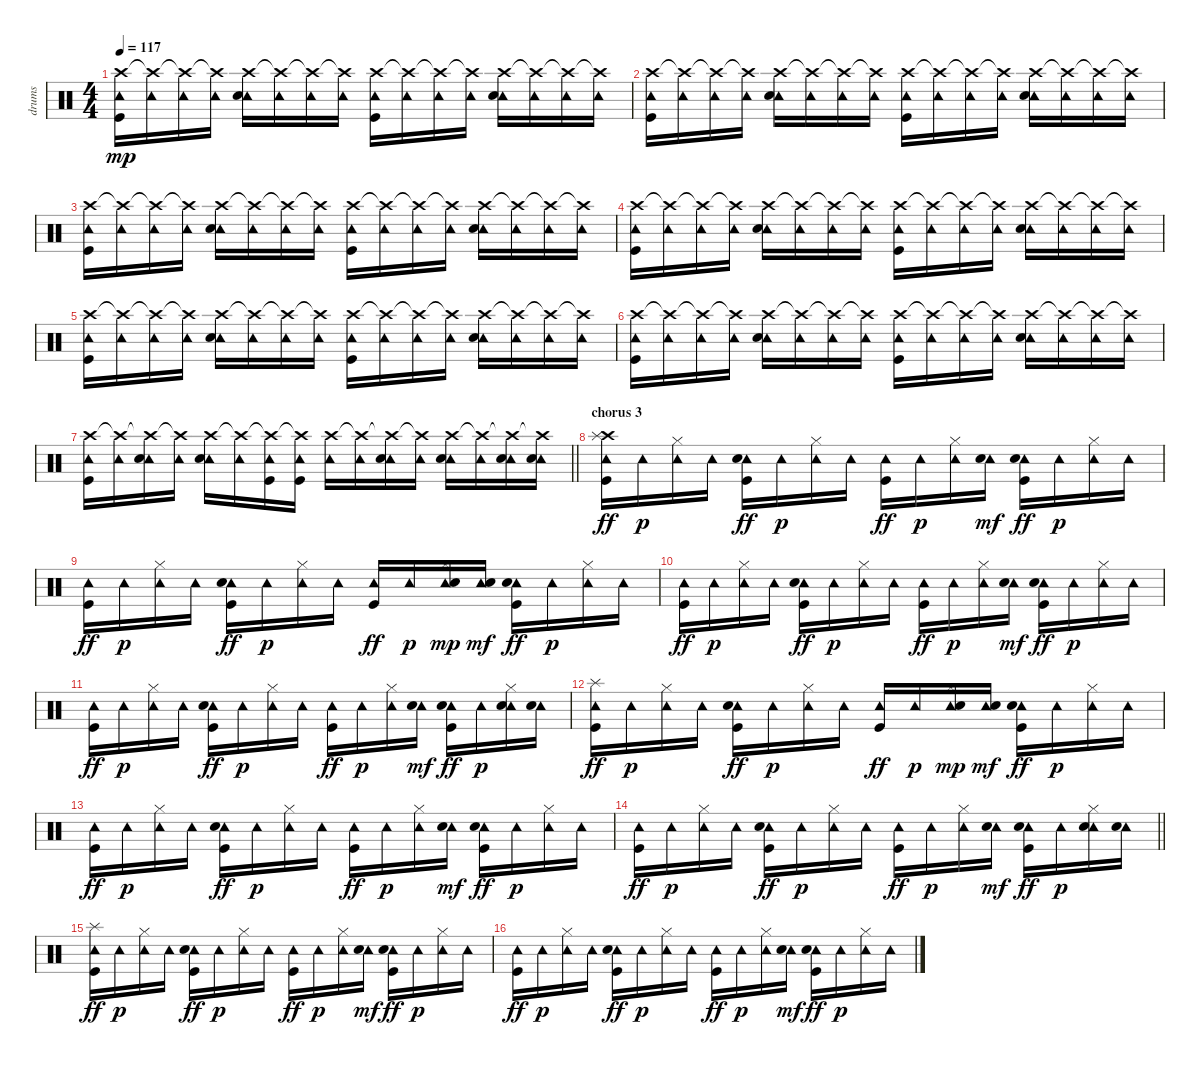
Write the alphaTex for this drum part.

\track ("drums" "drums") {instrument percussion}
\staff {score}
\articulation defaults
\ts (4 4)
\tempo 117
\clef neutral
\ks c
("Crash high (hit)" "Tambourine (hit)" "Kick (hit)").16{dy mp} ("Crash high (hit)"{t} "Tambourine (hit)").16 ("Crash high (hit)"{t} "Tambourine (hit)").16 ("Crash high (hit)"{t} "Tambourine (hit)").16 ("Crash high (hit)" "Tambourine (hit)" "Snare (hit) 2").16 ("Crash high (hit)"{t} "Tambourine (hit)").16 ("Crash high (hit)"{t} "Tambourine (hit)").16 ("Crash high (hit)"{t} "Tambourine (hit)").16 ("Crash high (hit)" "Tambourine (hit)" "Kick (hit)").16 ("Crash high (hit)"{t} "Tambourine (hit)").16 ("Crash high (hit)"{t} "Tambourine (hit)").16 ("Crash high (hit)"{t} "Tambourine (hit)").16 ("Crash high (hit)" "Tambourine (hit)" "Snare (hit) 2").16 ("Crash high (hit)"{t} "Tambourine (hit)").16 ("Crash high (hit)"{t} "Tambourine (hit)").16 ("Crash high (hit)"{t} "Tambourine (hit)").16 |
("Crash high (hit)" "Tambourine (hit)" "Kick (hit)").16 ("Crash high (hit)"{t} "Tambourine (hit)").16 ("Crash high (hit)"{t} "Tambourine (hit)").16 ("Crash high (hit)"{t} "Tambourine (hit)").16 ("Crash high (hit)" "Tambourine (hit)" "Snare (hit) 2").16 ("Crash high (hit)"{t} "Tambourine (hit)").16 ("Crash high (hit)"{t} "Tambourine (hit)").16 ("Crash high (hit)"{t} "Tambourine (hit)").16 ("Crash high (hit)" "Tambourine (hit)" "Kick (hit)").16 ("Crash high (hit)"{t} "Tambourine (hit)").16 ("Crash high (hit)"{t} "Tambourine (hit)").16 ("Crash high (hit)"{t} "Tambourine (hit)").16 ("Crash high (hit)" "Tambourine (hit)" "Snare (hit) 2").16 ("Crash high (hit)"{t} "Tambourine (hit)").16 ("Crash high (hit)"{t} "Tambourine (hit)").16 ("Crash high (hit)"{t} "Tambourine (hit)").16 |
("Crash high (hit)" "Tambourine (hit)" "Kick (hit)").16 ("Crash high (hit)"{t} "Tambourine (hit)").16 ("Crash high (hit)"{t} "Tambourine (hit)").16 ("Crash high (hit)"{t} "Tambourine (hit)").16 ("Crash high (hit)" "Tambourine (hit)" "Snare (hit) 2").16 ("Crash high (hit)"{t} "Tambourine (hit)").16 ("Crash high (hit)"{t} "Tambourine (hit)").16 ("Crash high (hit)"{t} "Tambourine (hit)").16 ("Crash high (hit)" "Tambourine (hit)" "Kick (hit)").16 ("Crash high (hit)"{t} "Tambourine (hit)").16 ("Crash high (hit)"{t} "Tambourine (hit)").16 ("Crash high (hit)"{t} "Tambourine (hit)").16 ("Crash high (hit)" "Tambourine (hit)" "Snare (hit) 2").16 ("Crash high (hit)"{t} "Tambourine (hit)").16 ("Crash high (hit)"{t} "Tambourine (hit)").16 ("Crash high (hit)"{t} "Tambourine (hit)").16 |
("Crash high (hit)" "Tambourine (hit)" "Kick (hit)").16 ("Crash high (hit)"{t} "Tambourine (hit)").16 ("Crash high (hit)"{t} "Tambourine (hit)").16 ("Crash high (hit)"{t} "Tambourine (hit)").16 ("Crash high (hit)" "Tambourine (hit)" "Snare (hit) 2").16 ("Crash high (hit)"{t} "Tambourine (hit)").16 ("Crash high (hit)"{t} "Tambourine (hit)").16 ("Crash high (hit)"{t} "Tambourine (hit)").16 ("Crash high (hit)" "Tambourine (hit)" "Kick (hit)").16 ("Crash high (hit)"{t} "Tambourine (hit)").16 ("Crash high (hit)"{t} "Tambourine (hit)").16 ("Crash high (hit)"{t} "Tambourine (hit)").16 ("Crash high (hit)" "Tambourine (hit)" "Snare (hit) 2").16 ("Crash high (hit)"{t} "Tambourine (hit)").16 ("Crash high (hit)"{t} "Tambourine (hit)").16 ("Crash high (hit)"{t} "Tambourine (hit)").16 |
("Crash high (hit)" "Tambourine (hit)" "Kick (hit)").16 ("Crash high (hit)"{t} "Tambourine (hit)").16 ("Crash high (hit)"{t} "Tambourine (hit)").16 ("Crash high (hit)"{t} "Tambourine (hit)").16 ("Crash high (hit)" "Tambourine (hit)" "Snare (hit) 2").16 ("Crash high (hit)"{t} "Tambourine (hit)").16 ("Crash high (hit)"{t} "Tambourine (hit)").16 ("Crash high (hit)"{t} "Tambourine (hit)").16 ("Crash high (hit)" "Tambourine (hit)" "Kick (hit)").16 ("Crash high (hit)"{t} "Tambourine (hit)").16 ("Crash high (hit)"{t} "Tambourine (hit)").16 ("Crash high (hit)"{t} "Tambourine (hit)").16 ("Crash high (hit)" "Tambourine (hit)" "Snare (hit) 2").16 ("Crash high (hit)"{t} "Tambourine (hit)").16 ("Crash high (hit)"{t} "Tambourine (hit)").16 ("Crash high (hit)"{t} "Tambourine (hit)").16 |
("Crash high (hit)" "Tambourine (hit)" "Kick (hit)").16 ("Crash high (hit)"{t} "Tambourine (hit)").16 ("Crash high (hit)"{t} "Tambourine (hit)").16 ("Crash high (hit)"{t} "Tambourine (hit)").16 ("Crash high (hit)" "Tambourine (hit)" "Snare (hit) 2").16 ("Crash high (hit)"{t} "Tambourine (hit)").16 ("Crash high (hit)"{t} "Tambourine (hit)").16 ("Crash high (hit)"{t} "Tambourine (hit)").16 ("Crash high (hit)" "Tambourine (hit)" "Kick (hit)").16 ("Crash high (hit)"{t} "Tambourine (hit)").16 ("Crash high (hit)"{t} "Tambourine (hit)").16 ("Crash high (hit)"{t} "Tambourine (hit)").16 ("Crash high (hit)" "Tambourine (hit)" "Snare (hit) 2").16 ("Crash high (hit)"{t} "Tambourine (hit)").16 ("Crash high (hit)"{t} "Tambourine (hit)").16 ("Crash high (hit)"{t} "Tambourine (hit)").16 |
\barLineRight lightlight
("Crash high (hit)" "Tambourine (hit)" "Kick (hit)").16 ("Crash high (hit)"{t} "Tambourine (hit)").16 ("Crash high (hit)"{t} "Tambourine (hit)" "Snare (hit) 2").16 ("Crash high (hit)"{t} "Tambourine (hit)").16 ("Crash high (hit)" "Tambourine (hit)" "Snare (hit) 2").16 ("Crash high (hit)"{t} "Tambourine (hit)").16 ("Crash high (hit)"{t} "Tambourine (hit)" "Kick (hit)").16 ("Crash high (hit)"{t} "Tambourine (hit)" "Kick (hit)").16 ("Crash high (hit)" "Tambourine (hit)").16 ("Crash high (hit)"{t} "Tambourine (hit)").16 ("Crash high (hit)"{t} "Tambourine (hit)" "Snare (hit) 2").16 ("Crash high (hit)"{t} "Tambourine (hit)").16 ("Crash high (hit)" "Tambourine (hit)" "Snare (hit) 2").16 ("Crash high (hit)"{t} "Tambourine (hit)").16 ("Crash high (hit)"{t} "Tambourine (hit)" "Snare (hit) 2").16 ("Crash high (hit)"{t} "Tambourine (hit)" "Snare (hit) 2").16 |
\section ("" "chorus 3")
("Crash high (hit)" "Splash (hit)" "Tambourine (hit)" "Kick (hit)").16{dy ff} "Tambourine (hit)".16{dy p} ("Hi-Hat (closed)" "Tambourine (hit)").16 "Tambourine (hit)".16 ("Tambourine (hit)" "Snare (hit) 2" "Kick (hit)").16{dy ff} "Tambourine (hit)".16{dy p} ("Hi-Hat (closed)" "Tambourine (hit)").16 "Tambourine (hit)".16 ("Tambourine (hit)" "Kick (hit)").16{dy ff} "Tambourine (hit)".16{dy p} ("Hi-Hat (closed)" "Tambourine (hit)").16 ("Tambourine (hit)" "Electric Snare (hit)").16{dy mf} ("Tambourine (hit)" "Electric Snare (hit)" "Kick (hit)").16{dy ff} "Tambourine (hit)".16{dy p} ("Hi-Hat (closed)" "Tambourine (hit)").16 "Tambourine (hit)".16 |
("Tambourine (hit)" "Kick (hit)").16{dy ff} "Tambourine (hit)".16{dy p} ("Hi-Hat (closed)" "Tambourine (hit)").16 "Tambourine (hit)".16 ("Tambourine (hit)" "Snare (hit) 2" "Kick (hit)").16{dy ff} "Tambourine (hit)".16{dy p} ("Hi-Hat (closed)" "Tambourine (hit)").16 "Tambourine (hit)".16 ("Tambourine (hit)" "Kick (hit)").16{dy ff} "Tambourine (hit)".16{dy p} ("Hi-Hat (closed)" "Tambourine (hit)" "Electric Snare (hit)").16{dy mp} ("Tambourine (hit)" "Electric Snare (hit)").16{dy mf} ("Tambourine (hit)" "Electric Snare (hit)" "Kick (hit)").16{dy ff} "Tambourine (hit)".16{dy p} ("Hi-Hat (closed)" "Tambourine (hit)").16 "Tambourine (hit)".16 |
("Tambourine (hit)" "Kick (hit)").16{dy ff} "Tambourine (hit)".16{dy p} ("Hi-Hat (closed)" "Tambourine (hit)").16 "Tambourine (hit)".16 ("Tambourine (hit)" "Snare (hit) 2" "Kick (hit)").16{dy ff} "Tambourine (hit)".16{dy p} ("Hi-Hat (closed)" "Tambourine (hit)").16 "Tambourine (hit)".16 ("Tambourine (hit)" "Kick (hit)").16{dy ff} "Tambourine (hit)".16{dy p} ("Hi-Hat (closed)" "Tambourine (hit)").16 ("Tambourine (hit)" "Electric Snare (hit)").16{dy mf} ("Tambourine (hit)" "Electric Snare (hit)" "Kick (hit)").16{dy ff} "Tambourine (hit)".16{dy p} ("Hi-Hat (closed)" "Tambourine (hit)").16 "Tambourine (hit)".16 |
("Tambourine (hit)" "Kick (hit)").16{dy ff} "Tambourine (hit)".16{dy p} ("Hi-Hat (closed)" "Tambourine (hit)").16 "Tambourine (hit)".16 ("Tambourine (hit)" "Snare (hit) 2" "Kick (hit)").16{dy ff} "Tambourine (hit)".16{dy p} ("Hi-Hat (closed)" "Tambourine (hit)").16 "Tambourine (hit)".16 ("Tambourine (hit)" "Kick (hit)").16{dy ff} "Tambourine (hit)".16{dy p} ("Hi-Hat (closed)" "Tambourine (hit)").16 ("Tambourine (hit)" "Electric Snare (hit)").16{dy mf} ("Tambourine (hit)" "Electric Snare (hit)" "Kick (hit)").16{dy ff} "Tambourine (hit)".16{dy p} ("Hi-Hat (closed)" "Tambourine (hit)" "Electric Snare (hit)").16 ("Tambourine (hit)" "Electric Snare (hit)").16 |
("Splash (hit)" "Tambourine (hit)" "Kick (hit)").16{dy ff} "Tambourine (hit)".16{dy p} ("Hi-Hat (closed)" "Tambourine (hit)").16 "Tambourine (hit)".16 ("Tambourine (hit)" "Snare (hit) 2" "Kick (hit)").16{dy ff} "Tambourine (hit)".16{dy p} ("Hi-Hat (closed)" "Tambourine (hit)").16 "Tambourine (hit)".16 ("Tambourine (hit)" "Kick (hit)").16{dy ff} "Tambourine (hit)".16{dy p} ("Hi-Hat (closed)" "Tambourine (hit)" "Electric Snare (hit)").16{dy mp} ("Tambourine (hit)" "Electric Snare (hit)").16{dy mf} ("Tambourine (hit)" "Electric Snare (hit)" "Kick (hit)").16{dy ff} "Tambourine (hit)".16{dy p} ("Hi-Hat (closed)" "Tambourine (hit)").16 "Tambourine (hit)".16 |
("Tambourine (hit)" "Kick (hit)").16{dy ff} "Tambourine (hit)".16{dy p} ("Hi-Hat (closed)" "Tambourine (hit)").16 "Tambourine (hit)".16 ("Tambourine (hit)" "Snare (hit) 2" "Kick (hit)").16{dy ff} "Tambourine (hit)".16{dy p} ("Hi-Hat (closed)" "Tambourine (hit)").16 "Tambourine (hit)".16 ("Tambourine (hit)" "Kick (hit)").16{dy ff} "Tambourine (hit)".16{dy p} ("Hi-Hat (closed)" "Tambourine (hit)").16 ("Tambourine (hit)" "Electric Snare (hit)").16{dy mf} ("Tambourine (hit)" "Electric Snare (hit)" "Kick (hit)").16{dy ff} "Tambourine (hit)".16{dy p} ("Hi-Hat (closed)" "Tambourine (hit)").16 "Tambourine (hit)".16 |
\barLineRight lightlight
("Tambourine (hit)" "Kick (hit)").16{dy ff} "Tambourine (hit)".16{dy p} ("Hi-Hat (closed)" "Tambourine (hit)").16 "Tambourine (hit)".16 ("Tambourine (hit)" "Snare (hit) 2" "Kick (hit)").16{dy ff} "Tambourine (hit)".16{dy p} ("Hi-Hat (closed)" "Tambourine (hit)").16 "Tambourine (hit)".16 ("Tambourine (hit)" "Kick (hit)").16{dy ff} "Tambourine (hit)".16{dy p} ("Hi-Hat (closed)" "Tambourine (hit)").16 ("Tambourine (hit)" "Electric Snare (hit)").16{dy mf} ("Tambourine (hit)" "Electric Snare (hit)" "Kick (hit)").16{dy ff} "Tambourine (hit)".16{dy p} ("Hi-Hat (closed)" "Tambourine (hit)" "Electric Snare (hit)").16 ("Tambourine (hit)" "Electric Snare (hit)").16 |
("Splash (hit)" "Tambourine (hit)" "Kick (hit)").16{dy ff} "Tambourine (hit)".16{dy p} ("Hi-Hat (closed)" "Tambourine (hit)").16 "Tambourine (hit)".16 ("Tambourine (hit)" "Snare (hit) 2" "Kick (hit)").16{dy ff} "Tambourine (hit)".16{dy p} ("Hi-Hat (closed)" "Tambourine (hit)").16 "Tambourine (hit)".16 ("Tambourine (hit)" "Kick (hit)").16{dy ff} "Tambourine (hit)".16{dy p} ("Hi-Hat (closed)" "Tambourine (hit)").16 ("Tambourine (hit)" "Electric Snare (hit)").16{dy mf} ("Tambourine (hit)" "Electric Snare (hit)" "Kick (hit)").16{dy ff} "Tambourine (hit)".16{dy p} ("Hi-Hat (closed)" "Tambourine (hit)").16 "Tambourine (hit)".16 |
("Tambourine (hit)" "Kick (hit)").16{dy ff} "Tambourine (hit)".16{dy p} ("Hi-Hat (closed)" "Tambourine (hit)").16 "Tambourine (hit)".16 ("Tambourine (hit)" "Snare (hit) 2" "Kick (hit)").16{dy ff} "Tambourine (hit)".16{dy p} ("Hi-Hat (closed)" "Tambourine (hit)").16 "Tambourine (hit)".16 ("Tambourine (hit)" "Kick (hit)").16{dy ff} "Tambourine (hit)".16{dy p} ("Hi-Hat (closed)" "Tambourine (hit)").16 ("Tambourine (hit)" "Electric Snare (hit)").16{dy mf} ("Tambourine (hit)" "Electric Snare (hit)" "Kick (hit)").16{dy ff} "Tambourine (hit)".16{dy p} ("Hi-Hat (closed)" "Tambourine (hit)").16 "Tambourine (hit)".16
